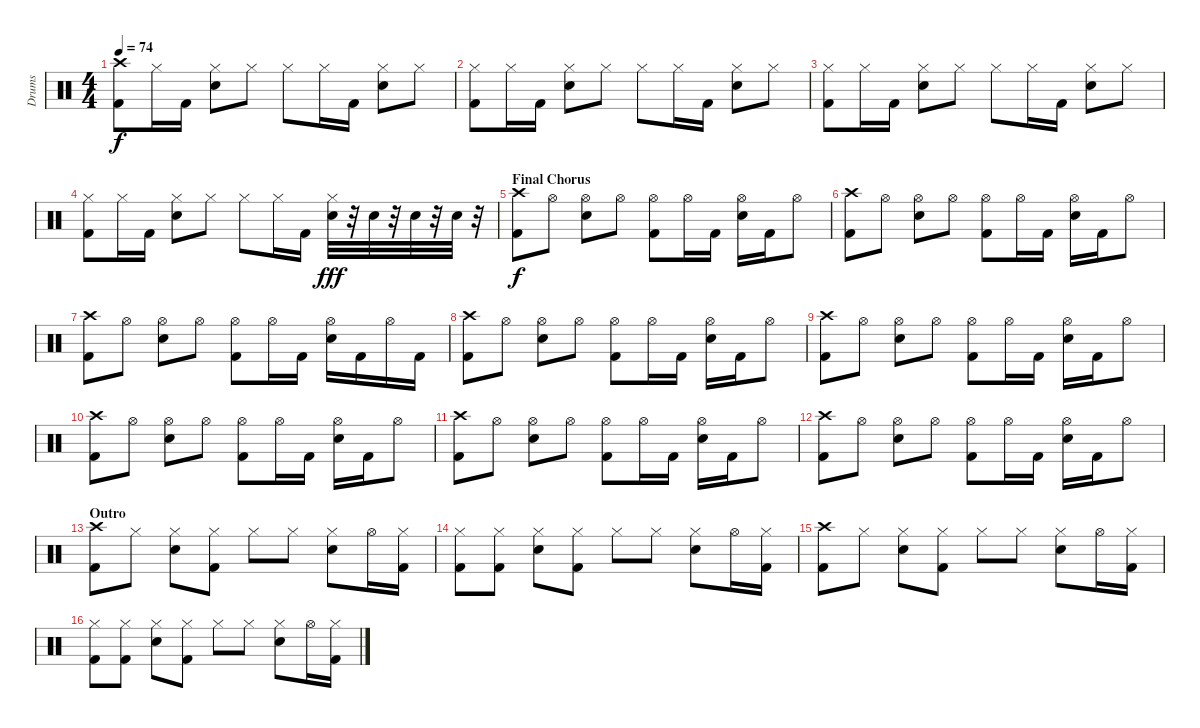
\track ("Drums" "Drums") {instrument percussion}
\staff {score}
\articulation defaults
\ts (4 4)
\tempo 74
\clef neutral
\ks c
("Crash high (hit)" "Kick (hit) 2").8{dy f} "Hi-Hat (closed)".16 "Kick (hit) 2".16 ("Hi-Hat (closed)" "Electric Snare (hit)").8 "Hi-Hat (closed)".8 "Hi-Hat (closed)".8 "Hi-Hat (closed)".16 "Kick (hit) 2".16 ("Hi-Hat (closed)" "Electric Snare (hit)").8 "Hi-Hat (closed)".8 |
("Hi-Hat (closed)" "Kick (hit) 2").8 "Hi-Hat (closed)".16 "Kick (hit) 2".16 ("Hi-Hat (closed)" "Electric Snare (hit)").8 "Hi-Hat (closed)".8 "Hi-Hat (closed)".8 "Hi-Hat (closed)".16 "Kick (hit) 2".16 ("Hi-Hat (closed)" "Electric Snare (hit)").8 "Hi-Hat (closed)".8 |
("Hi-Hat (closed)" "Kick (hit) 2").8 "Hi-Hat (closed)".16 "Kick (hit) 2".16 ("Hi-Hat (closed)" "Electric Snare (hit)").8 "Hi-Hat (closed)".8 "Hi-Hat (closed)".8 "Hi-Hat (closed)".16 "Kick (hit) 2".16 ("Hi-Hat (closed)" "Electric Snare (hit)").8 "Hi-Hat (closed)".8 |
("Hi-Hat (closed)" "Kick (hit) 2").8 "Hi-Hat (closed)".16 "Kick (hit) 2".16 ("Hi-Hat (closed)" "Electric Snare (hit)").8 "Hi-Hat (closed)".8 "Hi-Hat (closed)".8 "Hi-Hat (closed)".16 "Kick (hit) 2".16 ("Hi-Hat (closed)" "Electric Snare (hit)").32{dy fff} r.32 "Electric Snare (hit)".32 r.32 "Electric Snare (hit)".32 r.32 "Electric Snare (hit)".32 r.32 |
\section ("" "Final Chorus")
("Crash high (hit)" "Kick (hit) 2").8{dy f} "Hi-Hat (open)".8 ("Hi-Hat (open)" "Electric Snare (hit)").8 "Hi-Hat (open)".8 ("Hi-Hat (open)" "Kick (hit) 2").8 "Hi-Hat (open)".16 "Kick (hit) 2".16 ("Hi-Hat (open)" "Electric Snare (hit)").16 "Kick (hit) 2".16 "Hi-Hat (open)".8 |
("Crash high (hit)" "Kick (hit) 2").8 "Hi-Hat (open)".8 ("Hi-Hat (open)" "Electric Snare (hit)").8 "Hi-Hat (open)".8 ("Hi-Hat (open)" "Kick (hit) 2").8 "Hi-Hat (open)".16 "Kick (hit) 2".16 ("Hi-Hat (open)" "Electric Snare (hit)").16 "Kick (hit) 2".16 "Hi-Hat (open)".8 |
("Crash high (hit)" "Kick (hit) 2").8 "Hi-Hat (open)".8 ("Hi-Hat (open)" "Electric Snare (hit)").8 "Hi-Hat (open)".8 ("Hi-Hat (open)" "Kick (hit) 2").8 "Hi-Hat (open)".16 "Kick (hit) 2".16 ("Hi-Hat (open)" "Electric Snare (hit)").16 "Kick (hit) 2".16 "Hi-Hat (open)".16 "Kick (hit) 2".16 |
("Crash high (hit)" "Kick (hit) 2").8 "Hi-Hat (open)".8 ("Hi-Hat (open)" "Electric Snare (hit)").8 "Hi-Hat (open)".8 ("Hi-Hat (open)" "Kick (hit) 2").8 "Hi-Hat (open)".16 "Kick (hit) 2".16 ("Hi-Hat (open)" "Electric Snare (hit)").16 "Kick (hit) 2".16 "Hi-Hat (open)".8 |
("Crash high (hit)" "Kick (hit) 2").8 "Hi-Hat (open)".8 ("Hi-Hat (open)" "Electric Snare (hit)").8 "Hi-Hat (open)".8 ("Hi-Hat (open)" "Kick (hit) 2").8 "Hi-Hat (open)".16 "Kick (hit) 2".16 ("Hi-Hat (open)" "Electric Snare (hit)").16 "Kick (hit) 2".16 "Hi-Hat (open)".8 |
("Crash high (hit)" "Kick (hit) 2").8 "Hi-Hat (open)".8 ("Hi-Hat (open)" "Electric Snare (hit)").8 "Hi-Hat (open)".8 ("Hi-Hat (open)" "Kick (hit) 2").8 "Hi-Hat (open)".16 "Kick (hit) 2".16 ("Hi-Hat (open)" "Electric Snare (hit)").16 "Kick (hit) 2".16 "Hi-Hat (open)".8 |
("Crash high (hit)" "Kick (hit) 2").8 "Hi-Hat (open)".8 ("Hi-Hat (open)" "Electric Snare (hit)").8 "Hi-Hat (open)".8 ("Hi-Hat (open)" "Kick (hit) 2").8 "Hi-Hat (open)".16 "Kick (hit) 2".16 ("Hi-Hat (open)" "Electric Snare (hit)").16 "Kick (hit) 2".16 "Hi-Hat (open)".8 |
("Crash high (hit)" "Kick (hit) 2").8 "Hi-Hat (open)".8 ("Hi-Hat (open)" "Electric Snare (hit)").8 "Hi-Hat (open)".8 ("Hi-Hat (open)" "Kick (hit) 2").8 "Hi-Hat (open)".16 "Kick (hit) 2".16 ("Hi-Hat (open)" "Electric Snare (hit)").16 "Kick (hit) 2".16 "Hi-Hat (open)".8 |
\section ("" "Outro")
("Crash high (hit)" "Kick (hit) 2").8 "Hi-Hat (closed)".8 ("Hi-Hat (closed)" "Electric Snare (hit)").8 ("Hi-Hat (closed)" "Kick (hit) 2").8 "Hi-Hat (closed)".8 "Hi-Hat (closed)".8 ("Hi-Hat (closed)" "Electric Snare (hit)").8 "Hi-Hat (open)".16 ("Hi-Hat (closed)" "Kick (hit) 2").16 |
("Hi-Hat (closed)" "Kick (hit) 2").8 ("Hi-Hat (closed)" "Kick (hit) 2").8 ("Hi-Hat (closed)" "Electric Snare (hit)").8 ("Hi-Hat (closed)" "Kick (hit) 2").8 "Hi-Hat (closed)".8 "Hi-Hat (closed)".8 ("Hi-Hat (closed)" "Electric Snare (hit)").8 "Hi-Hat (open)".16 ("Hi-Hat (closed)" "Kick (hit) 2").16 |
("Crash high (hit)" "Kick (hit) 2").8 "Hi-Hat (closed)".8 ("Hi-Hat (closed)" "Electric Snare (hit)").8 ("Hi-Hat (closed)" "Kick (hit) 2").8 "Hi-Hat (closed)".8 "Hi-Hat (closed)".8 ("Hi-Hat (closed)" "Electric Snare (hit)").8 "Hi-Hat (open)".16 ("Hi-Hat (closed)" "Kick (hit) 2").16 |
("Hi-Hat (closed)" "Kick (hit) 2").8 ("Hi-Hat (closed)" "Kick (hit) 2").8 ("Hi-Hat (closed)" "Electric Snare (hit)").8 ("Hi-Hat (closed)" "Kick (hit) 2").8 "Hi-Hat (closed)".8 "Hi-Hat (closed)".8 ("Hi-Hat (closed)" "Electric Snare (hit)").8 "Hi-Hat (open)".16 ("Hi-Hat (closed)" "Kick (hit) 2").16
